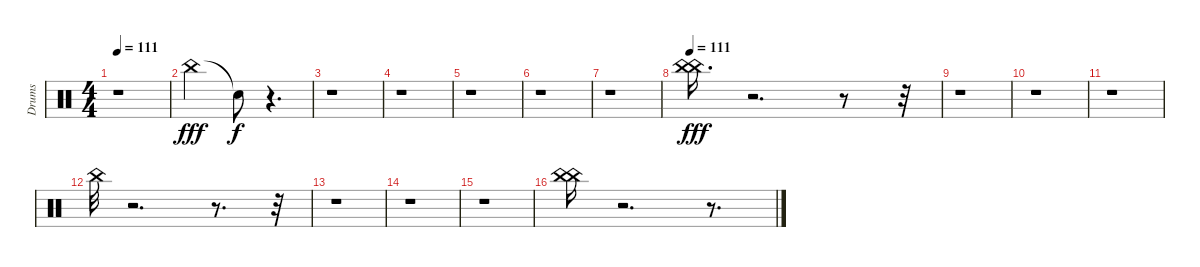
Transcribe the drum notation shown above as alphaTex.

\track ("Drums" "Drums") {instrument percussion}
\staff {score}
\articulation defaults
\ts (4 4)
\tempo 111
\clef neutral
\ks c
r.1{dy f} |
"China (hit)".2{dy fff} "Snare (hit)"{t}.8{dy f} r.4{d} |
r.1 |
r.1 |
r.1 |
r.1 |
r.1 |
\tempo 111
("China (hit)" "China (hit)").16{d dy fff} r.2{d} r.8 r.32 |
r.1 |
r.1 |
r.1 |
"China (hit)".32 r.2{d} r.8{d} r.32 |
r.1 |
r.1 |
r.1 |
("China (hit)" "China (hit)").16 r.2{d} r.8{d}
